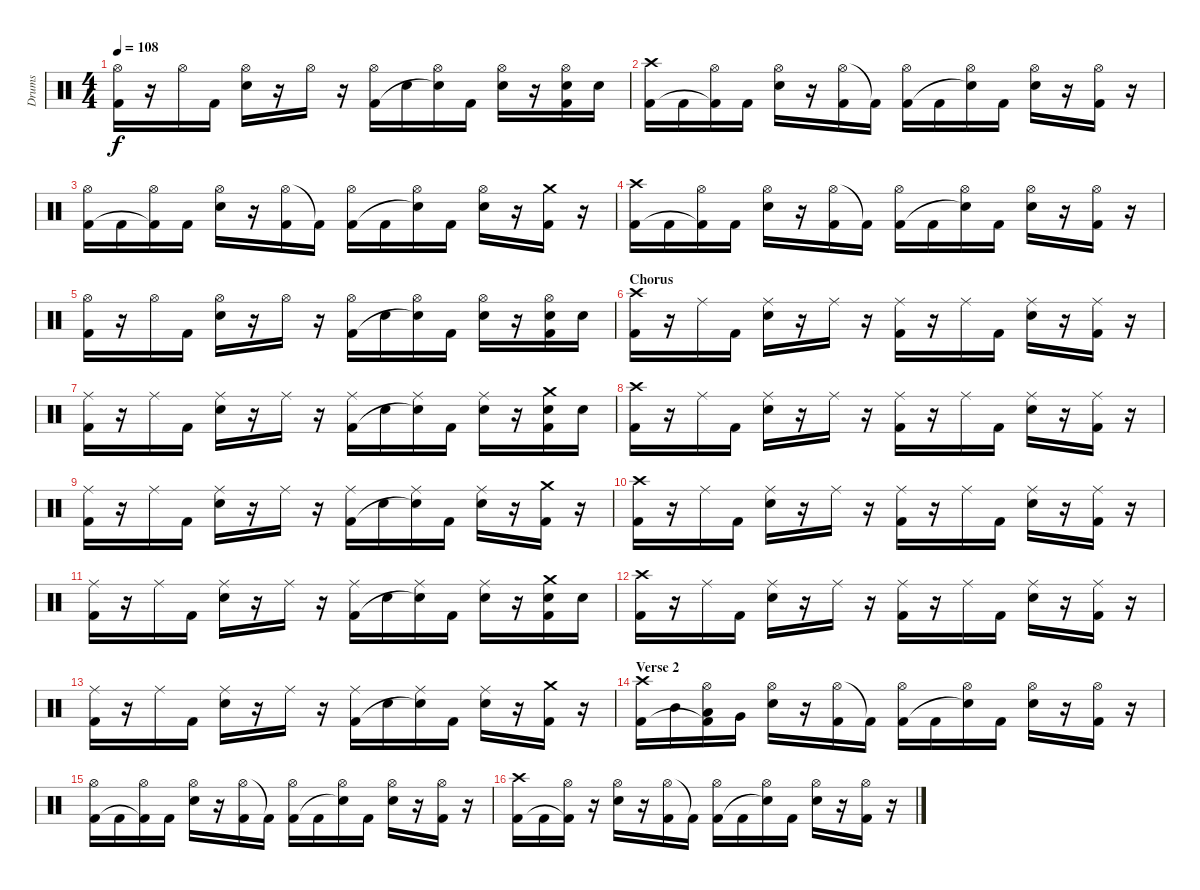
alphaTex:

\track ("Drums" "Drums") {instrument percussion}
\staff {score}
\articulation defaults
\ts (4 4)
\tempo 108
\clef neutral
\ks c
("Hi-Hat (open)" "Kick (hit) 2").16{dy f} r.16 "Hi-Hat (open)".16 "Kick (hit) 2".16 ("Hi-Hat (open)" "Electric Snare (hit)").16 r.16 "Hi-Hat (open)".16 r.16 ("Hi-Hat (open)" "Kick (hit) 2").16 "Electric Snare (hit)".16 ("Hi-Hat (open)" "Electric Snare (hit)"{t}).16 "Kick (hit) 2".16 ("Hi-Hat (open)" "Electric Snare (hit)").16 r.16 ("Hi-Hat (open)" "Electric Snare (hit)" "Kick (hit) 2").16 "Electric Snare (hit)".16 |
("Crash high (hit)" "Kick (hit) 2").16 "Kick (hit) 2".16 ("Hi-Hat (open)" "Kick (hit) 2"{t}).16 "Kick (hit) 2".16 ("Hi-Hat (open)" "Electric Snare (hit)").16 r.16 ("Hi-Hat (open)" "Kick (hit) 2").16 "Kick (hit) 2"{t}.16 ("Hi-Hat (open)" "Kick (hit) 2").16 "Kick (hit) 2".16 ("Hi-Hat (open)" "Electric Snare (hit)"{t}).16 "Kick (hit) 2".16 ("Hi-Hat (open)" "Electric Snare (hit)").16 r.16 ("Hi-Hat (open)" "Kick (hit) 2").16 r.16 |
("Hi-Hat (open)" "Kick (hit) 2").16 "Kick (hit) 2".16 ("Hi-Hat (open)" "Kick (hit) 2"{t}).16 "Kick (hit) 2".16 ("Hi-Hat (open)" "Electric Snare (hit)").16 r.16 ("Hi-Hat (open)" "Kick (hit) 2").16 "Kick (hit) 2"{t}.16 ("Hi-Hat (open)" "Kick (hit) 2").16 "Kick (hit) 2".16 ("Hi-Hat (open)" "Electric Snare (hit)"{t}).16 "Kick (hit) 2".16 ("Hi-Hat (open)" "Electric Snare (hit)").16 r.16 ("Crash medium (hit)" "Kick (hit) 2").16 r.16 |
("Crash high (hit)" "Kick (hit) 2").16 "Kick (hit) 2".16 ("Hi-Hat (open)" "Kick (hit) 2"{t}).16 "Kick (hit) 2".16 ("Hi-Hat (open)" "Electric Snare (hit)").16 r.16 ("Hi-Hat (open)" "Kick (hit) 2").16 "Kick (hit) 2"{t}.16 ("Hi-Hat (open)" "Kick (hit) 2").16 "Kick (hit) 2".16 ("Hi-Hat (open)" "Electric Snare (hit)"{t}).16 "Kick (hit) 2".16 ("Hi-Hat (open)" "Electric Snare (hit)").16 r.16 ("Hi-Hat (open)" "Kick (hit) 2").16 r.16 |
("Hi-Hat (open)" "Kick (hit) 2").16 r.16 "Hi-Hat (open)".16 "Kick (hit) 2".16 ("Hi-Hat (open)" "Electric Snare (hit)").16 r.16 "Hi-Hat (open)".16 r.16 ("Hi-Hat (open)" "Kick (hit) 2").16 "Electric Snare (hit)".16 ("Hi-Hat (open)" "Electric Snare (hit)"{t}).16 "Kick (hit) 2".16 ("Hi-Hat (open)" "Electric Snare (hit)").16 r.16 ("Hi-Hat (open)" "Electric Snare (hit)" "Kick (hit) 2").16 "Electric Snare (hit)".16 |
\section ("" "Chorus")
("Crash high (hit)" "Kick (hit) 2").16 r.16 "Ride (middle)".16 "Kick (hit) 2".16 ("Ride (middle)" "Electric Snare (hit)").16 r.16 "Ride (middle)".16 r.16 ("Ride (middle)" "Kick (hit) 2").16 r.16 "Ride (middle)".16 "Kick (hit) 2".16 ("Ride (middle)" "Electric Snare (hit)").16 r.16 ("Ride (middle)" "Kick (hit) 2").16 r.16 |
("Ride (middle)" "Kick (hit) 2").16 r.16 "Ride (middle)".16 "Kick (hit) 2".16 ("Ride (middle)" "Electric Snare (hit)").16 r.16 "Ride (middle)".16 r.16 ("Ride (middle)" "Kick (hit) 2").16 "Electric Snare (hit)".16 ("Ride (middle)" "Electric Snare (hit)"{t}).16 "Kick (hit) 2".16 ("Ride (middle)" "Electric Snare (hit)").16 r.16 ("Crash medium (hit)" "Electric Snare (hit)" "Kick (hit) 2").16 "Electric Snare (hit)".16 |
("Crash high (hit)" "Kick (hit) 2").16 r.16 "Ride (middle)".16 "Kick (hit) 2".16 ("Ride (middle)" "Electric Snare (hit)").16 r.16 "Ride (middle)".16 r.16 ("Ride (middle)" "Kick (hit) 2").16 r.16 "Ride (middle)".16 "Kick (hit) 2".16 ("Ride (middle)" "Electric Snare (hit)").16 r.16 ("Ride (middle)" "Kick (hit) 2").16 r.16 |
("Ride (middle)" "Kick (hit) 2").16 r.16 "Ride (middle)".16 "Kick (hit) 2".16 ("Ride (middle)" "Electric Snare (hit)").16 r.16 "Ride (middle)".16 r.16 ("Ride (middle)" "Kick (hit) 2").16 "Electric Snare (hit)".16 ("Ride (middle)" "Electric Snare (hit)"{t}).16 "Kick (hit) 2".16 ("Ride (middle)" "Electric Snare (hit)").16 r.16 ("Crash medium (hit)" "Kick (hit) 2").16 r.16 |
("Crash high (hit)" "Kick (hit) 2").16 r.16 "Ride (middle)".16 "Kick (hit) 2".16 ("Ride (middle)" "Electric Snare (hit)").16 r.16 "Ride (middle)".16 r.16 ("Ride (middle)" "Kick (hit) 2").16 r.16 "Ride (middle)".16 "Kick (hit) 2".16 ("Ride (middle)" "Electric Snare (hit)").16 r.16 ("Ride (middle)" "Kick (hit) 2").16 r.16 |
("Ride (middle)" "Kick (hit) 2").16 r.16 "Ride (middle)".16 "Kick (hit) 2".16 ("Ride (middle)" "Electric Snare (hit)").16 r.16 "Ride (middle)".16 r.16 ("Ride (middle)" "Kick (hit) 2").16 "Electric Snare (hit)".16 ("Ride (middle)" "Electric Snare (hit)"{t}).16 "Kick (hit) 2".16 ("Ride (middle)" "Electric Snare (hit)").16 r.16 ("Crash medium (hit)" "Electric Snare (hit)" "Kick (hit) 2").16 "Electric Snare (hit)".16 |
("Crash high (hit)" "Kick (hit) 2").16 r.16 "Ride (middle)".16 "Kick (hit) 2".16 ("Ride (middle)" "Electric Snare (hit)").16 r.16 "Ride (middle)".16 r.16 ("Ride (middle)" "Kick (hit) 2").16 r.16 "Ride (middle)".16 "Kick (hit) 2".16 ("Ride (middle)" "Electric Snare (hit)").16 r.16 ("Ride (middle)" "Kick (hit) 2").16 r.16 |
("Ride (middle)" "Kick (hit) 2").16 r.16 "Ride (middle)".16 "Kick (hit) 2".16 ("Ride (middle)" "Electric Snare (hit)").16 r.16 "Ride (middle)".16 r.16 ("Ride (middle)" "Kick (hit) 2").16 "Electric Snare (hit)".16 ("Ride (middle)" "Electric Snare (hit)"{t}).16 "Kick (hit) 2".16 ("Ride (middle)" "Electric Snare (hit)").16 r.16 ("Crash medium (hit)" "Kick (hit) 2").16 r.16 |
\section ("" "Verse 2")
("Crash high (hit)" "Kick (hit) 2").16 "Mid Tom (hit)".16 ("Hi-Hat (open)" "Kick (hit) 2"{t} "Low Tom (hit)").16 "Very Low Tom (hit)".16 ("Hi-Hat (open)" "Electric Snare (hit)").16 r.16 ("Hi-Hat (open)" "Kick (hit) 2").16 "Kick (hit) 2"{t}.16 ("Hi-Hat (open)" "Kick (hit) 2").16 "Kick (hit) 2".16 ("Hi-Hat (open)" "Electric Snare (hit)"{t}).16 "Kick (hit) 2".16 ("Hi-Hat (open)" "Electric Snare (hit)").16 r.16 ("Hi-Hat (open)" "Kick (hit) 2").16 r.16 |
("Hi-Hat (open)" "Kick (hit) 2").16 "Kick (hit) 2".16 ("Hi-Hat (open)" "Kick (hit) 2"{t}).16 "Kick (hit) 2".16 ("Hi-Hat (open)" "Electric Snare (hit)").16 r.16 ("Hi-Hat (open)" "Kick (hit) 2").16 "Kick (hit) 2"{t}.16 ("Hi-Hat (open)" "Kick (hit) 2").16 "Kick (hit) 2".16 ("Hi-Hat (open)" "Electric Snare (hit)"{t}).16 "Kick (hit) 2".16 ("Hi-Hat (open)" "Electric Snare (hit)").16 r.16 ("Hi-Hat (open)" "Kick (hit) 2").16 r.16 |
("Crash high (hit)" "Kick (hit) 2").16 "Kick (hit) 2".16 ("Hi-Hat (open)" "Kick (hit) 2"{t}).16 r.16 ("Hi-Hat (open)" "Electric Snare (hit)").16 r.16 ("Hi-Hat (open)" "Kick (hit) 2").16 "Kick (hit) 2"{t}.16 ("Hi-Hat (open)" "Kick (hit) 2").16 "Kick (hit) 2".16 ("Hi-Hat (open)" "Electric Snare (hit)"{t}).16 "Kick (hit) 2".16 ("Hi-Hat (open)" "Electric Snare (hit)").16 r.16 ("Hi-Hat (open)" "Kick (hit) 2").16 r.16
